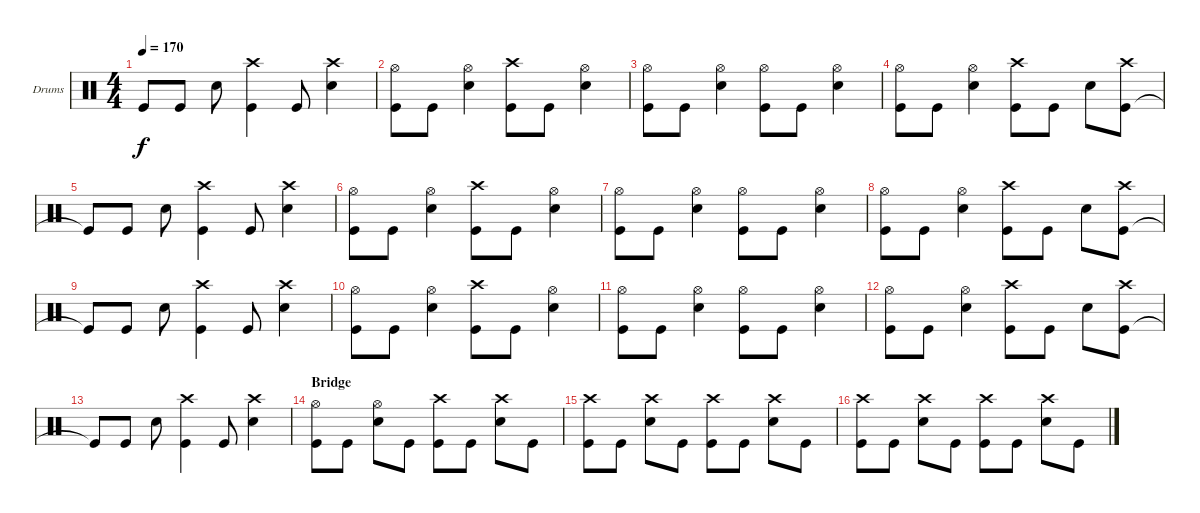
\defaultSystemsLayout 4
\bracketExtendMode groupsimilarinstruments
\firstSystemTrackNameOrientation horizontal
\otherSystemsTrackNameOrientation horizontal
\track ("Jimmy \"The Hammer\" - Drums" "Drums") {instrument percussion}
\staff {score}
\articulation defaults
\ts (4 4)
\tempo 170
\clef neutral
\ks c "Kick (hit)"{t}.8{dy f} "Kick (hit)".8 "Snare (hit) 2".8
("Kick (hit)" "Crash high (hit)").4 "Kick (hit)".8 ("Snare (hit) 2" "Crash high (hit)").4 |
("Kick (hit)" "Hi-Hat (open)").8 "Kick (hit)".8 ("Snare (hit) 2" "Hi-Hat (open)").4 ("Kick (hit)" "Crash high (hit)").8 "Kick (hit)".8 ("Hi-Hat (open)" "Snare (hit) 2").4 |
("Kick (hit)" "Hi-Hat (open)").8 "Kick (hit)".8 ("Snare (hit) 2" "Hi-Hat (open)").4 ("Kick (hit)" "Hi-Hat (open)").8 "Kick (hit)".8 ("Snare (hit) 2" "Hi-Hat (open)").4 |
("Kick (hit)" "Hi-Hat (open)").8 "Kick (hit)".8 ("Snare (hit) 2" "Hi-Hat (open)").4 ("Kick (hit)" "Crash high (hit)").8 "Kick (hit)".8 "Snare (hit) 2".8 ("Kick (hit)" "Crash high (hit)").8 |
"Kick (hit)"{t}.8 "Kick (hit)".8 "Snare (hit) 2".8 ("Kick (hit)" "Crash high (hit)").4 "Kick (hit)".8 ("Snare (hit) 2" "Crash high (hit)").4 |
("Kick (hit)" "Hi-Hat (open)").8 "Kick (hit)".8 ("Snare (hit) 2" "Hi-Hat (open)").4 ("Kick (hit)" "Crash high (hit)").8 "Kick (hit)".8 ("Hi-Hat (open)" "Snare (hit) 2").4 |
("Kick (hit)" "Hi-Hat (open)").8 "Kick (hit)".8 ("Snare (hit) 2" "Hi-Hat (open)").4 ("Kick (hit)" "Hi-Hat (open)").8 "Kick (hit)".8 ("Snare (hit) 2" "Hi-Hat (open)").4 |
("Kick (hit)" "Hi-Hat (open)").8 "Kick (hit)".8 ("Snare (hit) 2" "Hi-Hat (open)").4 ("Kick (hit)" "Crash high (hit)").8 "Kick (hit)".8 "Snare (hit) 2".8 ("Kick (hit)" "Crash high (hit)").8 |
"Kick (hit)"{t}.8 "Kick (hit)".8 "Snare (hit) 2".8 ("Kick (hit)" "Crash high (hit)").4 "Kick (hit)".8 ("Snare (hit) 2" "Crash high (hit)").4 |
("Kick (hit)" "Hi-Hat (open)").8 "Kick (hit)".8 ("Snare (hit) 2" "Hi-Hat (open)").4 ("Kick (hit)" "Crash high (hit)").8 "Kick (hit)".8 ("Hi-Hat (open)" "Snare (hit) 2").4 |
("Kick (hit)" "Hi-Hat (open)").8 "Kick (hit)".8 ("Snare (hit) 2" "Hi-Hat (open)").4 ("Kick (hit)" "Hi-Hat (open)").8 "Kick (hit)".8 ("Snare (hit) 2" "Hi-Hat (open)").4 |
("Kick (hit)" "Hi-Hat (open)").8 "Kick (hit)".8 ("Snare (hit) 2" "Hi-Hat (open)").4 ("Kick (hit)" "Crash high (hit)").8 "Kick (hit)".8 "Snare (hit) 2".8 ("Kick (hit)" "Crash high (hit)").8 |
"Kick (hit)"{t}.8 "Kick (hit)".8 "Snare (hit) 2".8 ("Kick (hit)" "Crash high (hit)").4 "Kick (hit)".8 ("Snare (hit) 2" "Crash high (hit)").4 |
\section ("" "Bridge")
("Kick (hit)" "Hi-Hat (open)").8 "Kick (hit)".8 ("Snare (hit) 2" "Hi-Hat (open)").8 "Kick (hit)".8 ("Kick (hit)" "Crash high (hit)").8 "Kick (hit)".8 ("Snare (hit) 2" "Crash high (hit)").8 "Kick (hit)".8 |
("Kick (hit)" "Crash high (hit)").8 "Kick (hit)".8 ("Snare (hit) 2" "Crash high (hit)").8 "Kick (hit)".8 ("Kick (hit)" "Crash high (hit)").8 "Kick (hit)".8 ("Snare (hit) 2" "Crash high (hit)").8 "Kick (hit)".8 |
("Kick (hit)" "Crash high (hit)").8 "Kick (hit)".8 ("Snare (hit) 2" "Crash high (hit)").8 "Kick (hit)".8 ("Kick (hit)" "Crash high (hit)").8 "Kick (hit)".8 ("Snare (hit) 2" "Crash high (hit)").8 "Kick (hit)".8
